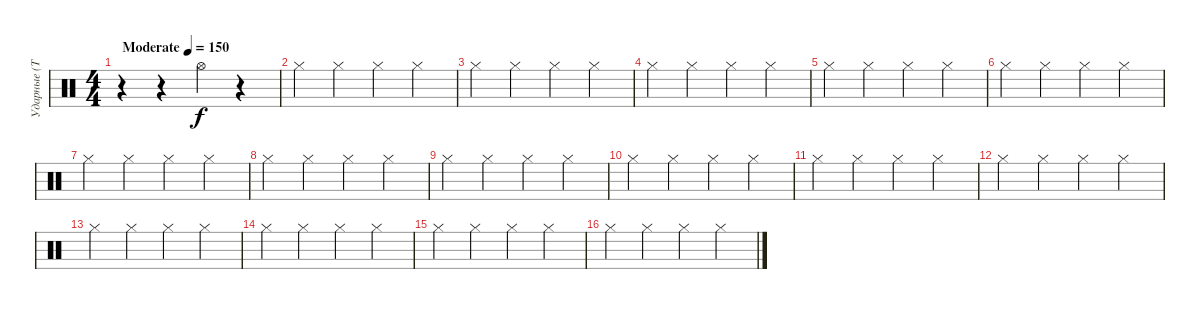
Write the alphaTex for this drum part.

\track ("Ударные (Тоша)" "Ударные (Т") {instrument percussion}
\staff {score}
\articulation defaults
\ts (4 4)
\tempo (150 "Moderate")
\clef neutral
\ks c
r.4{dy f} r.4 "Hi-Hat (open)".4 r.4 |
"Hi-Hat (closed)".4 "Hi-Hat (closed)".4 "Hi-Hat (closed)".4 "Hi-Hat (closed)".4 |
"Hi-Hat (closed)".4 "Hi-Hat (closed)".4 "Hi-Hat (closed)".4 "Hi-Hat (closed)".4 |
"Hi-Hat (closed)".4 "Hi-Hat (closed)".4 "Hi-Hat (closed)".4 "Hi-Hat (closed)".4 |
"Hi-Hat (closed)".4 "Hi-Hat (closed)".4 "Hi-Hat (closed)".4 "Hi-Hat (closed)".4 |
"Hi-Hat (closed)".4 "Hi-Hat (closed)".4 "Hi-Hat (closed)".4 "Hi-Hat (closed)".4 |
"Hi-Hat (closed)".4 "Hi-Hat (closed)".4 "Hi-Hat (closed)".4 "Hi-Hat (closed)".4 |
"Hi-Hat (closed)".4 "Hi-Hat (closed)".4 "Hi-Hat (closed)".4 "Hi-Hat (closed)".4 |
"Hi-Hat (closed)".4 "Hi-Hat (closed)".4 "Hi-Hat (closed)".4 "Hi-Hat (closed)".4 |
"Hi-Hat (closed)".4 "Hi-Hat (closed)".4 "Hi-Hat (closed)".4 "Hi-Hat (closed)".4 |
"Hi-Hat (closed)".4 "Hi-Hat (closed)".4 "Hi-Hat (closed)".4 "Hi-Hat (closed)".4 |
"Hi-Hat (closed)".4 "Hi-Hat (closed)".4 "Hi-Hat (closed)".4 "Hi-Hat (closed)".4 |
"Hi-Hat (closed)".4 "Hi-Hat (closed)".4 "Hi-Hat (closed)".4 "Hi-Hat (closed)".4 |
"Hi-Hat (closed)".4 "Hi-Hat (closed)".4 "Hi-Hat (closed)".4 "Hi-Hat (closed)".4 |
"Hi-Hat (closed)".4 "Hi-Hat (closed)".4 "Hi-Hat (closed)".4 "Hi-Hat (closed)".4 |
"Hi-Hat (closed)".4 "Hi-Hat (closed)".4 "Hi-Hat (closed)".4 "Hi-Hat (closed)".4
